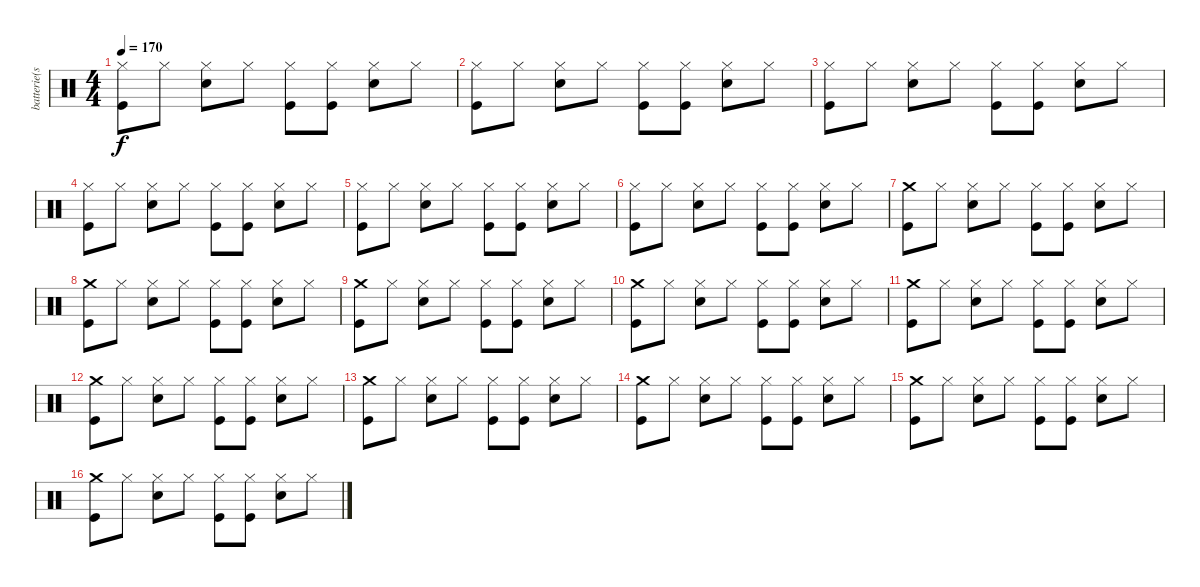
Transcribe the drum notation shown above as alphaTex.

\track ("batterie(steve)" "batterie(s") {instrument percussion}
\staff {score}
\articulation defaults
\ts (4 4)
\tempo 170
\clef neutral
\ks c
("Hi-Hat (closed)" "Kick (hit)").8{dy f} "Hi-Hat (closed)".8 ("Hi-Hat (closed)" "Snare (hit) 2").8 "Hi-Hat (closed)".8 ("Hi-Hat (closed)" "Kick (hit)").8 ("Hi-Hat (closed)" "Kick (hit)").8 ("Hi-Hat (closed)" "Snare (hit) 2").8 "Hi-Hat (closed)".8 |
("Hi-Hat (closed)" "Kick (hit)").8 "Hi-Hat (closed)".8 ("Hi-Hat (closed)" "Snare (hit) 2").8 "Hi-Hat (closed)".8 ("Hi-Hat (closed)" "Kick (hit)").8 ("Hi-Hat (closed)" "Kick (hit)").8 ("Hi-Hat (closed)" "Snare (hit) 2").8 "Hi-Hat (closed)".8 |
("Hi-Hat (closed)" "Kick (hit)").8 "Hi-Hat (closed)".8 ("Hi-Hat (closed)" "Snare (hit) 2").8 "Hi-Hat (closed)".8 ("Hi-Hat (closed)" "Kick (hit)").8 ("Hi-Hat (closed)" "Kick (hit)").8 ("Hi-Hat (closed)" "Snare (hit) 2").8 "Hi-Hat (closed)".8 |
("Hi-Hat (closed)" "Kick (hit)").8 "Hi-Hat (closed)".8 ("Hi-Hat (closed)" "Snare (hit) 2").8 "Hi-Hat (closed)".8 ("Hi-Hat (closed)" "Kick (hit)").8 ("Hi-Hat (closed)" "Kick (hit)").8 ("Hi-Hat (closed)" "Snare (hit) 2").8 "Hi-Hat (closed)".8 |
("Hi-Hat (closed)" "Kick (hit)").8 "Hi-Hat (closed)".8 ("Hi-Hat (closed)" "Snare (hit) 2").8 "Hi-Hat (closed)".8 ("Hi-Hat (closed)" "Kick (hit)").8 ("Hi-Hat (closed)" "Kick (hit)").8 ("Hi-Hat (closed)" "Snare (hit) 2").8 "Hi-Hat (closed)".8 |
("Hi-Hat (closed)" "Kick (hit)").8 "Hi-Hat (closed)".8 ("Hi-Hat (closed)" "Snare (hit) 2").8 "Hi-Hat (closed)".8 ("Hi-Hat (closed)" "Kick (hit)").8 ("Hi-Hat (closed)" "Kick (hit)").8 ("Hi-Hat (closed)" "Snare (hit) 2").8 "Hi-Hat (closed)".8 |
("Crash medium (hit)" "Kick (hit)").8 "Hi-Hat (closed)".8 ("Hi-Hat (closed)" "Snare (hit) 2").8 "Hi-Hat (closed)".8 ("Hi-Hat (closed)" "Kick (hit)").8 ("Hi-Hat (closed)" "Kick (hit)").8 ("Hi-Hat (closed)" "Snare (hit) 2").8 "Hi-Hat (closed)".8 |
("Crash medium (hit)" "Kick (hit)").8 "Hi-Hat (closed)".8 ("Hi-Hat (closed)" "Snare (hit) 2").8 "Hi-Hat (closed)".8 ("Hi-Hat (closed)" "Kick (hit)").8 ("Hi-Hat (closed)" "Kick (hit)").8 ("Hi-Hat (closed)" "Snare (hit) 2").8 "Hi-Hat (closed)".8 |
("Crash medium (hit)" "Kick (hit)").8 "Hi-Hat (closed)".8 ("Hi-Hat (closed)" "Snare (hit) 2").8 "Hi-Hat (closed)".8 ("Hi-Hat (closed)" "Kick (hit)").8 ("Hi-Hat (closed)" "Kick (hit)").8 ("Hi-Hat (closed)" "Snare (hit) 2").8 "Hi-Hat (closed)".8 |
("Crash medium (hit)" "Kick (hit)").8 "Hi-Hat (closed)".8 ("Hi-Hat (closed)" "Snare (hit) 2").8 "Hi-Hat (closed)".8 ("Hi-Hat (closed)" "Kick (hit)").8 ("Hi-Hat (closed)" "Kick (hit)").8 ("Hi-Hat (closed)" "Snare (hit) 2").8 "Hi-Hat (closed)".8 |
("Crash medium (hit)" "Kick (hit)").8 "Hi-Hat (closed)".8 ("Hi-Hat (closed)" "Snare (hit) 2").8 "Hi-Hat (closed)".8 ("Hi-Hat (closed)" "Kick (hit)").8 ("Hi-Hat (closed)" "Kick (hit)").8 ("Hi-Hat (closed)" "Snare (hit) 2").8 "Hi-Hat (closed)".8 |
("Crash medium (hit)" "Kick (hit)").8 "Hi-Hat (closed)".8 ("Hi-Hat (closed)" "Snare (hit) 2").8 "Hi-Hat (closed)".8 ("Hi-Hat (closed)" "Kick (hit)").8 ("Hi-Hat (closed)" "Kick (hit)").8 ("Hi-Hat (closed)" "Snare (hit) 2").8 "Hi-Hat (closed)".8 |
("Crash medium (hit)" "Kick (hit)").8 "Hi-Hat (closed)".8 ("Hi-Hat (closed)" "Snare (hit) 2").8 "Hi-Hat (closed)".8 ("Hi-Hat (closed)" "Kick (hit)").8 ("Hi-Hat (closed)" "Kick (hit)").8 ("Hi-Hat (closed)" "Snare (hit) 2").8 "Hi-Hat (closed)".8 |
("Crash medium (hit)" "Kick (hit)").8 "Hi-Hat (closed)".8 ("Hi-Hat (closed)" "Snare (hit) 2").8 "Hi-Hat (closed)".8 ("Hi-Hat (closed)" "Kick (hit)").8 ("Hi-Hat (closed)" "Kick (hit)").8 ("Hi-Hat (closed)" "Snare (hit) 2").8 "Hi-Hat (closed)".8 |
("Crash medium (hit)" "Kick (hit)").8 "Hi-Hat (closed)".8 ("Hi-Hat (closed)" "Snare (hit) 2").8 "Hi-Hat (closed)".8 ("Hi-Hat (closed)" "Kick (hit)").8 ("Hi-Hat (closed)" "Kick (hit)").8 ("Hi-Hat (closed)" "Snare (hit) 2").8 "Hi-Hat (closed)".8 |
("Crash medium (hit)" "Kick (hit)").8 "Hi-Hat (closed)".8 ("Hi-Hat (closed)" "Snare (hit) 2").8 "Hi-Hat (closed)".8 ("Hi-Hat (closed)" "Kick (hit)").8 ("Hi-Hat (closed)" "Kick (hit)").8 ("Hi-Hat (closed)" "Snare (hit) 2").8 "Hi-Hat (closed)".8
